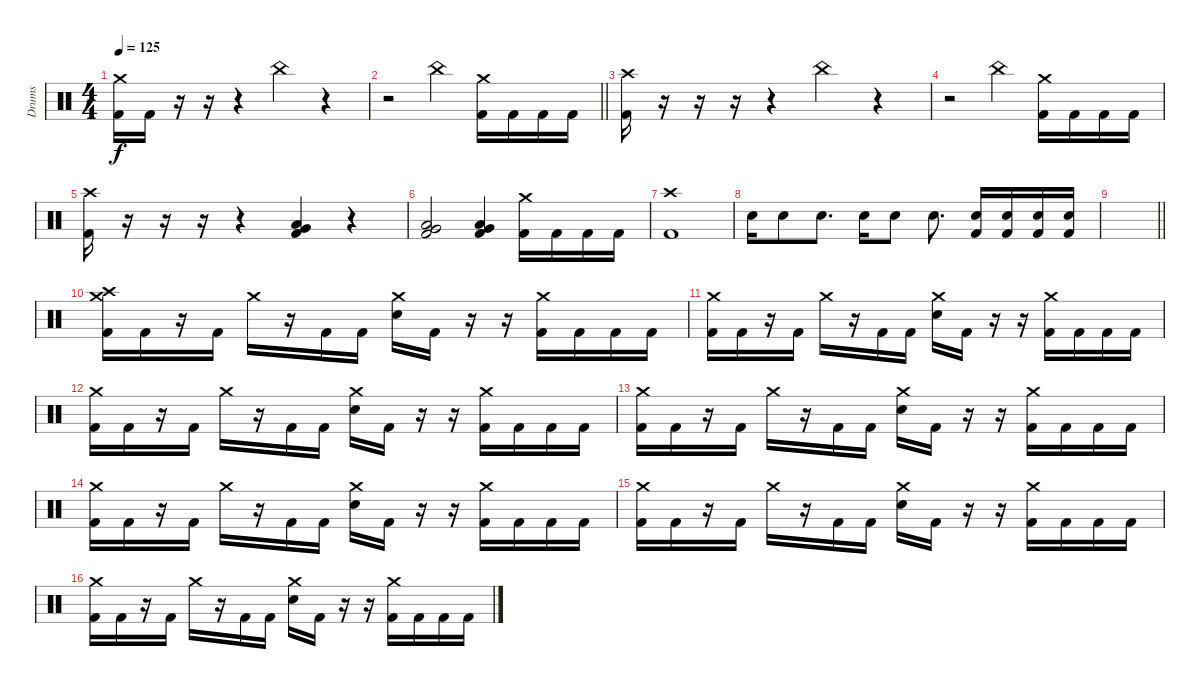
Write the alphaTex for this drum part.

\track ("Drums" "Drums") {instrument percussion}
\staff {score}
\articulation defaults
\ts (4 4)
\tempo 125
\clef neutral
\ks c
("Crash medium (hit)" "Kick (hit) 2").16{dy f} "Kick (hit) 2".16 r.16 r.16 r.4 "China (hit)".4 r.4 |
\barLineRight lightlight
r.2 "China (hit)".4 ("Crash medium (hit)" "Kick (hit) 2").16 "Kick (hit) 2".16 "Kick (hit) 2".16 "Kick (hit) 2".16 |
\section ("" "")
("Crash high (hit)" "Kick (hit) 2").16 r.16 r.16 r.16 r.4 "China (hit)".4 r.4 |
r.2 "China (hit)".4 ("Crash medium (hit)" "Kick (hit) 2").16 "Kick (hit) 2".16 "Kick (hit) 2".16 "Kick (hit) 2".16 |
("Crash high (hit)" "Kick (hit) 2").16 r.16 r.16 r.16 r.4 ("Very Low Tom (hit)" "Low Tom (hit)" "Kick (hit) 2").4 r.4 |
("Very Low Tom (hit)" "Low Tom (hit)" "Kick (hit) 2").2 ("Very Low Tom (hit)" "Low Tom (hit)" "Kick (hit) 2").4 ("Crash medium (hit)" "Kick (hit) 2").16 "Kick (hit) 2".16 "Kick (hit) 2".16 "Kick (hit) 2".16 |
("Crash high (hit)" "Kick (hit) 2").1 |
"Snare (hit) 2".16 "Snare (hit) 2".8 "Snare (hit) 2".8{d} "Snare (hit) 2".16 "Snare (hit) 2".8 "Snare (hit) 2".8{d} ("Snare (hit) 2" "Kick (hit) 2").16 ("Snare (hit) 2" "Kick (hit) 2").16 ("Snare (hit) 2" "Kick (hit) 2").16 ("Snare (hit) 2" "Kick (hit) 2").16 |
\barLineRight lightlight
|
\section ("" "")
("Crash medium (hit)" "Crash high (hit)" "Kick (hit) 2").16 "Kick (hit) 2".16 r.16 "Kick (hit) 2".16 "Crash medium (hit)".16 r.16 "Kick (hit) 2".16 "Kick (hit) 2".16 ("Crash medium (hit)" "Snare (hit) 2").16 "Kick (hit) 2".16 r.16 r.16 ("Crash medium (hit)" "Kick (hit) 2").16 "Kick (hit) 2".16 "Kick (hit) 2".16 "Kick (hit) 2".16 |
("Crash medium (hit)" "Kick (hit) 2").16 "Kick (hit) 2".16 r.16 "Kick (hit) 2".16 "Crash medium (hit)".16 r.16 "Kick (hit) 2".16 "Kick (hit) 2".16 ("Crash medium (hit)" "Snare (hit) 2").16 "Kick (hit) 2".16 r.16 r.16 ("Crash medium (hit)" "Kick (hit) 2").16 "Kick (hit) 2".16 "Kick (hit) 2".16 "Kick (hit) 2".16 |
("Crash medium (hit)" "Kick (hit) 2").16 "Kick (hit) 2".16 r.16 "Kick (hit) 2".16 "Crash medium (hit)".16 r.16 "Kick (hit) 2".16 "Kick (hit) 2".16 ("Crash medium (hit)" "Snare (hit) 2").16 "Kick (hit) 2".16 r.16 r.16 ("Crash medium (hit)" "Kick (hit) 2").16 "Kick (hit) 2".16 "Kick (hit) 2".16 "Kick (hit) 2".16 |
("Crash medium (hit)" "Kick (hit) 2").16 "Kick (hit) 2".16 r.16 "Kick (hit) 2".16 "Crash medium (hit)".16 r.16 "Kick (hit) 2".16 "Kick (hit) 2".16 ("Crash medium (hit)" "Snare (hit) 2").16 "Kick (hit) 2".16 r.16 r.16 ("Crash medium (hit)" "Kick (hit) 2").16 "Kick (hit) 2".16 "Kick (hit) 2".16 "Kick (hit) 2".16 |
("Crash medium (hit)" "Kick (hit) 2").16 "Kick (hit) 2".16 r.16 "Kick (hit) 2".16 "Crash medium (hit)".16 r.16 "Kick (hit) 2".16 "Kick (hit) 2".16 ("Crash medium (hit)" "Snare (hit) 2").16 "Kick (hit) 2".16 r.16 r.16 ("Crash medium (hit)" "Kick (hit) 2").16 "Kick (hit) 2".16 "Kick (hit) 2".16 "Kick (hit) 2".16 |
("Crash medium (hit)" "Kick (hit) 2").16 "Kick (hit) 2".16 r.16 "Kick (hit) 2".16 "Crash medium (hit)".16 r.16 "Kick (hit) 2".16 "Kick (hit) 2".16 ("Crash medium (hit)" "Snare (hit) 2").16 "Kick (hit) 2".16 r.16 r.16 ("Crash medium (hit)" "Kick (hit) 2").16 "Kick (hit) 2".16 "Kick (hit) 2".16 "Kick (hit) 2".16 |
("Crash medium (hit)" "Kick (hit) 2").16 "Kick (hit) 2".16 r.16 "Kick (hit) 2".16 "Crash medium (hit)".16 r.16 "Kick (hit) 2".16 "Kick (hit) 2".16 ("Crash medium (hit)" "Snare (hit) 2").16 "Kick (hit) 2".16 r.16 r.16 ("Crash medium (hit)" "Kick (hit) 2").16 "Kick (hit) 2".16 "Kick (hit) 2".16 "Kick (hit) 2".16
